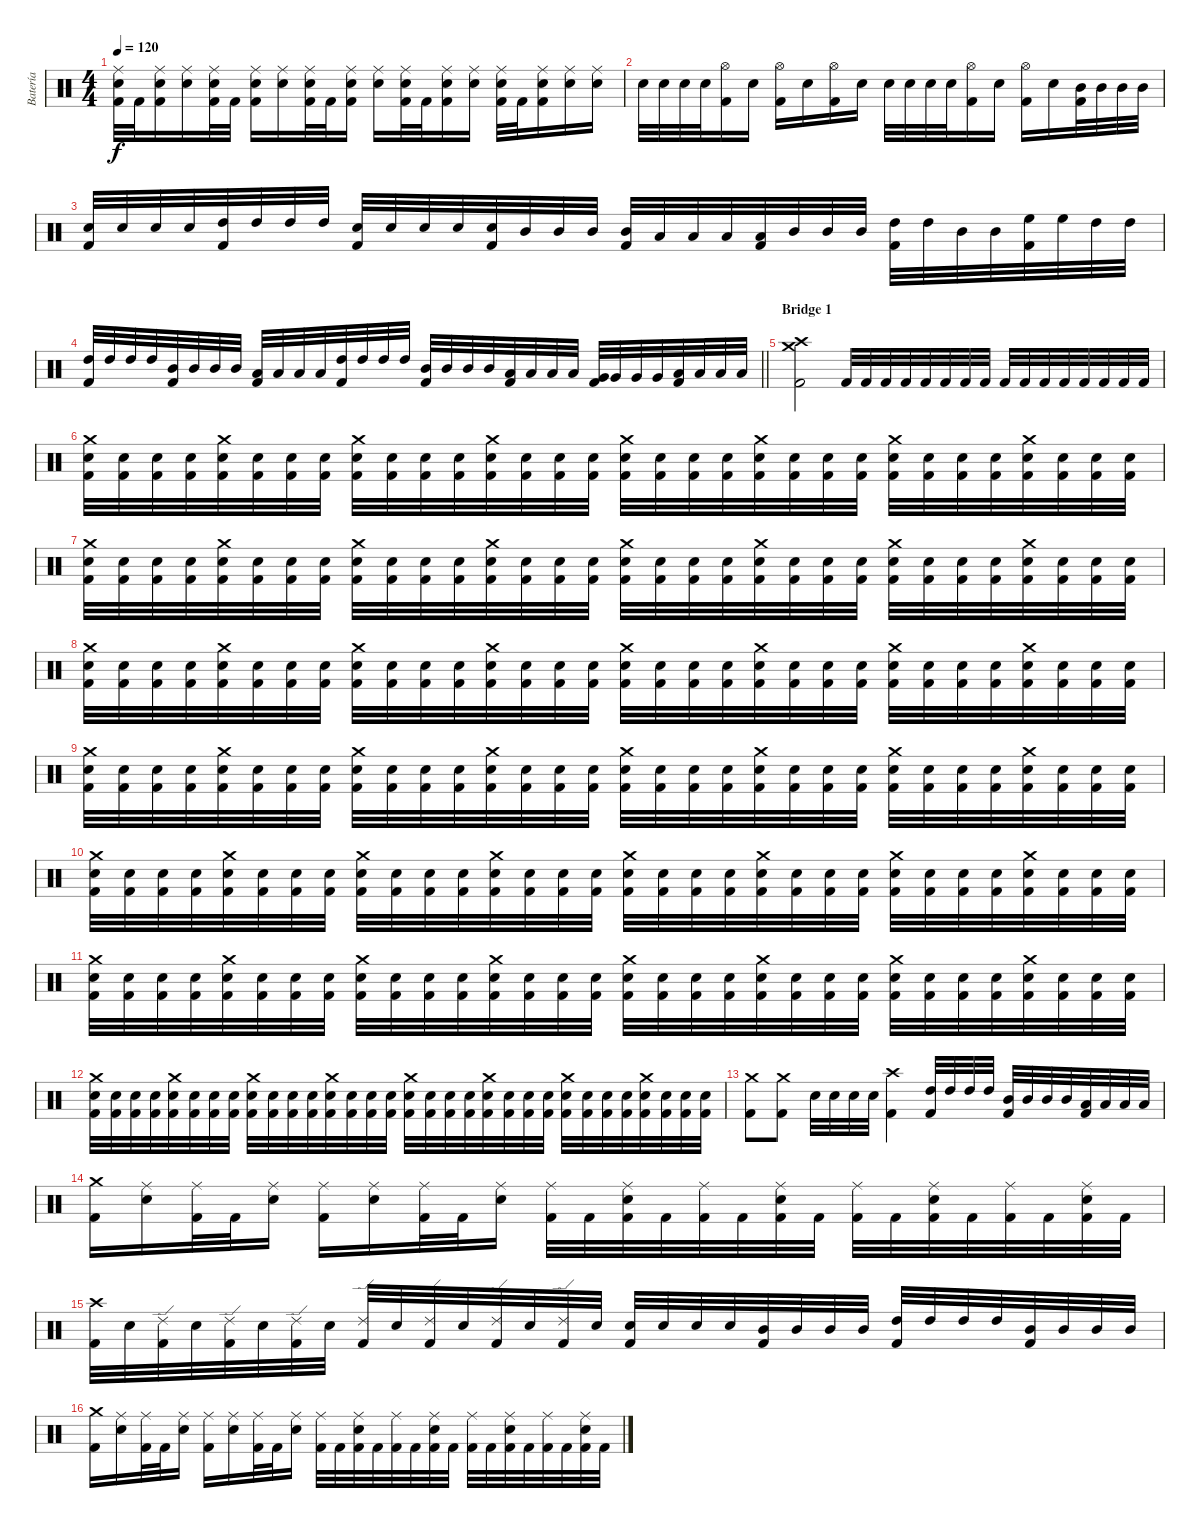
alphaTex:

\track ("Batería" "Batería") {instrument percussion}
\staff {score}
\articulation defaults
\ts (4 4)
\tempo 120
\clef neutral
\ks c
("Ride (middle)" "Electric Snare (hit)" "Kick (hit) 2").32{dy f} "Kick (hit) 2".32 ("Ride (middle)" "Electric Snare (hit)" "Kick (hit) 2").16 ("Ride (middle)" "Electric Snare (hit)").16 ("Ride (middle)" "Electric Snare (hit)" "Kick (hit) 2").32 "Kick (hit) 2".32 ("Ride (middle)" "Electric Snare (hit)" "Kick (hit) 2").16 ("Ride (middle)" "Electric Snare (hit)").16 ("Ride (middle)" "Electric Snare (hit)" "Kick (hit) 2").32 "Kick (hit) 2".32 ("Ride (middle)" "Electric Snare (hit)" "Kick (hit) 2").16 ("Ride (middle)" "Electric Snare (hit)").16 ("Ride (middle)" "Electric Snare (hit)" "Kick (hit) 2").32 "Kick (hit) 2".32 ("Ride (middle)" "Electric Snare (hit)" "Kick (hit) 2").16 ("Ride (middle)" "Electric Snare (hit)").16 ("Ride (middle)" "Electric Snare (hit)" "Kick (hit) 2").32 "Kick (hit) 2".32 ("Ride (middle)" "Electric Snare (hit)" "Kick (hit) 2").16 ("Ride (middle)" "Electric Snare (hit)").16 ("Ride (middle)" "Electric Snare (hit)").16 |
"Electric Snare (hit)".32 "Electric Snare (hit)".32 "Electric Snare (hit)".32 "Electric Snare (hit)".32 ("Hi-Hat (open)" "Kick (hit) 2").16 "Electric Snare (hit)".16 ("Hi-Hat (open)" "Kick (hit) 2").16 "Electric Snare (hit)".16 ("Hi-Hat (open)" "Kick (hit) 2").16 "Electric Snare (hit)".16 "Electric Snare (hit)".32 "Electric Snare (hit)".32 "Electric Snare (hit)".32 "Electric Snare (hit)".32 ("Hi-Hat (open)" "Kick (hit) 2").16 "Electric Snare (hit)".16 ("Hi-Hat (open)" "Kick (hit) 2").16 "Electric Snare (hit)".16 ("Mid Tom (hit)" "Kick (hit) 2").32 "Mid Tom (hit)".32 "Mid Tom (hit)".32 "Mid Tom (hit)".32 |
("Electric Snare (hit)" "Kick (hit) 2").32 "Electric Snare (hit)".32 "Electric Snare (hit)".32 "Electric Snare (hit)".32 ("High Tom (hit)" "Kick (hit) 2").32 "High Tom (hit)".32 "High Tom (hit)".32 "High Tom (hit)".32 ("Electric Snare (hit)" "Kick (hit) 2").32 "Electric Snare (hit)".32 "Electric Snare (hit)".32 "Electric Snare (hit)".32 ("Electric Snare (hit)" "Kick (hit) 2").32 "Mid Tom (hit)".32 "Mid Tom (hit)".32 "Mid Tom (hit)".32 ("Mid Tom (hit)" "Kick (hit) 2").32 "Low Tom (hit)".32 "Low Tom (hit)".32 "Low Tom (hit)".32 ("Low Tom (hit)" "Kick (hit) 2").32 "Mid Tom (hit)".32 "Mid Tom (hit)".32 "Mid Tom (hit)".32 ("High Tom (hit)" "Kick (hit) 2").32 "High Tom (hit)".32 "Mid Tom (hit)".32 "Mid Tom (hit)".32 ("High Floor Tom (hit)" "Kick (hit) 2").32 "High Floor Tom (hit)".32 "High Tom (hit)".32 "High Tom (hit)".32 |
\barLineRight lightlight
("High Tom (hit)" "Kick (hit) 2").32 "High Tom (hit)".32 "High Tom (hit)".32 "High Tom (hit)".32 ("Mid Tom (hit)" "Kick (hit) 2").32 "Mid Tom (hit)".32 "Mid Tom (hit)".32 "Mid Tom (hit)".32 ("Low Tom (hit)" "Kick (hit) 2").32 "Low Tom (hit)".32 "Low Tom (hit)".32 "Low Tom (hit)".32 ("High Tom (hit)" "Kick (hit) 2").32 "High Tom (hit)".32 "High Tom (hit)".32 "High Tom (hit)".32 ("Mid Tom (hit)" "Kick (hit) 2").32 "Mid Tom (hit)".32 "Mid Tom (hit)".32 "Mid Tom (hit)".32 ("Low Tom (hit)" "Kick (hit) 2").32 "Low Tom (hit)".32 "Low Tom (hit)".32 "Low Tom (hit)".32 ("Very Low Tom (hit)" "Kick (hit) 2").32 "Very Low Tom (hit)".32 "Very Low Tom (hit)".32 "Very Low Tom (hit)".32 ("Low Tom (hit)" "Kick (hit) 2").32 "Low Tom (hit)".32 "Low Tom (hit)".32 "Low Tom (hit)".32 |
\section ("" "Bridge 1")
("Crash high (hit)" "Crash medium (hit)" "Kick (hit) 2").2 "Kick (hit) 2".32 "Kick (hit) 2".32 "Kick (hit) 2".32 "Kick (hit) 2".32 "Kick (hit) 2".32 "Kick (hit) 2".32 "Kick (hit) 2".32 "Kick (hit) 2".32 "Kick (hit) 2".32 "Kick (hit) 2".32 "Kick (hit) 2".32 "Kick (hit) 2".32 "Kick (hit) 2".32 "Kick (hit) 2".32 "Kick (hit) 2".32 "Kick (hit) 2".32 |
("Crash medium (hit)" "Electric Snare (hit)" "Kick (hit) 2").32 ("Electric Snare (hit)" "Kick (hit) 2").32 ("Electric Snare (hit)" "Kick (hit) 2").32 ("Electric Snare (hit)" "Kick (hit) 2").32 ("Crash medium (hit)" "Electric Snare (hit)" "Kick (hit) 2").32 ("Electric Snare (hit)" "Kick (hit) 2").32 ("Electric Snare (hit)" "Kick (hit) 2").32 ("Electric Snare (hit)" "Kick (hit) 2").32 ("Crash medium (hit)" "Electric Snare (hit)" "Kick (hit) 2").32 ("Electric Snare (hit)" "Kick (hit) 2").32 ("Electric Snare (hit)" "Kick (hit) 2").32 ("Electric Snare (hit)" "Kick (hit) 2").32 ("Crash medium (hit)" "Electric Snare (hit)" "Kick (hit) 2").32 ("Electric Snare (hit)" "Kick (hit) 2").32 ("Electric Snare (hit)" "Kick (hit) 2").32 ("Electric Snare (hit)" "Kick (hit) 2").32 ("Crash medium (hit)" "Electric Snare (hit)" "Kick (hit) 2").32 ("Electric Snare (hit)" "Kick (hit) 2").32 ("Electric Snare (hit)" "Kick (hit) 2").32 ("Electric Snare (hit)" "Kick (hit) 2").32 ("Crash medium (hit)" "Electric Snare (hit)" "Kick (hit) 2").32 ("Electric Snare (hit)" "Kick (hit) 2").32 ("Electric Snare (hit)" "Kick (hit) 2").32 ("Electric Snare (hit)" "Kick (hit) 2").32 ("Crash medium (hit)" "Electric Snare (hit)" "Kick (hit) 2").32 ("Electric Snare (hit)" "Kick (hit) 2").32 ("Electric Snare (hit)" "Kick (hit) 2").32 ("Electric Snare (hit)" "Kick (hit) 2").32 ("Crash medium (hit)" "Electric Snare (hit)" "Kick (hit) 2").32 ("Electric Snare (hit)" "Kick (hit) 2").32 ("Electric Snare (hit)" "Kick (hit) 2").32 ("Electric Snare (hit)" "Kick (hit) 2").32 |
("Crash medium (hit)" "Electric Snare (hit)" "Kick (hit) 2").32 ("Electric Snare (hit)" "Kick (hit) 2").32 ("Electric Snare (hit)" "Kick (hit) 2").32 ("Electric Snare (hit)" "Kick (hit) 2").32 ("Crash medium (hit)" "Electric Snare (hit)" "Kick (hit) 2").32 ("Electric Snare (hit)" "Kick (hit) 2").32 ("Electric Snare (hit)" "Kick (hit) 2").32 ("Electric Snare (hit)" "Kick (hit) 2").32 ("Crash medium (hit)" "Electric Snare (hit)" "Kick (hit) 2").32 ("Electric Snare (hit)" "Kick (hit) 2").32 ("Electric Snare (hit)" "Kick (hit) 2").32 ("Electric Snare (hit)" "Kick (hit) 2").32 ("Crash medium (hit)" "Electric Snare (hit)" "Kick (hit) 2").32 ("Electric Snare (hit)" "Kick (hit) 2").32 ("Electric Snare (hit)" "Kick (hit) 2").32 ("Electric Snare (hit)" "Kick (hit) 2").32 ("Crash medium (hit)" "Electric Snare (hit)" "Kick (hit) 2").32 ("Electric Snare (hit)" "Kick (hit) 2").32 ("Electric Snare (hit)" "Kick (hit) 2").32 ("Electric Snare (hit)" "Kick (hit) 2").32 ("Crash medium (hit)" "Electric Snare (hit)" "Kick (hit) 2").32 ("Electric Snare (hit)" "Kick (hit) 2").32 ("Electric Snare (hit)" "Kick (hit) 2").32 ("Electric Snare (hit)" "Kick (hit) 2").32 ("Crash medium (hit)" "Electric Snare (hit)" "Kick (hit) 2").32 ("Electric Snare (hit)" "Kick (hit) 2").32 ("Electric Snare (hit)" "Kick (hit) 2").32 ("Electric Snare (hit)" "Kick (hit) 2").32 ("Crash medium (hit)" "Electric Snare (hit)" "Kick (hit) 2").32 ("Electric Snare (hit)" "Kick (hit) 2").32 ("Electric Snare (hit)" "Kick (hit) 2").32 ("Electric Snare (hit)" "Kick (hit) 2").32 |
("Crash medium (hit)" "Electric Snare (hit)" "Kick (hit) 2").32 ("Electric Snare (hit)" "Kick (hit) 2").32 ("Electric Snare (hit)" "Kick (hit) 2").32 ("Electric Snare (hit)" "Kick (hit) 2").32 ("Crash medium (hit)" "Electric Snare (hit)" "Kick (hit) 2").32 ("Electric Snare (hit)" "Kick (hit) 2").32 ("Electric Snare (hit)" "Kick (hit) 2").32 ("Electric Snare (hit)" "Kick (hit) 2").32 ("Crash medium (hit)" "Electric Snare (hit)" "Kick (hit) 2").32 ("Electric Snare (hit)" "Kick (hit) 2").32 ("Electric Snare (hit)" "Kick (hit) 2").32 ("Electric Snare (hit)" "Kick (hit) 2").32 ("Crash medium (hit)" "Electric Snare (hit)" "Kick (hit) 2").32 ("Electric Snare (hit)" "Kick (hit) 2").32 ("Electric Snare (hit)" "Kick (hit) 2").32 ("Electric Snare (hit)" "Kick (hit) 2").32 ("Crash medium (hit)" "Electric Snare (hit)" "Kick (hit) 2").32 ("Electric Snare (hit)" "Kick (hit) 2").32 ("Electric Snare (hit)" "Kick (hit) 2").32 ("Electric Snare (hit)" "Kick (hit) 2").32 ("Crash medium (hit)" "Electric Snare (hit)" "Kick (hit) 2").32 ("Electric Snare (hit)" "Kick (hit) 2").32 ("Electric Snare (hit)" "Kick (hit) 2").32 ("Electric Snare (hit)" "Kick (hit) 2").32 ("Crash medium (hit)" "Electric Snare (hit)" "Kick (hit) 2").32 ("Electric Snare (hit)" "Kick (hit) 2").32 ("Electric Snare (hit)" "Kick (hit) 2").32 ("Electric Snare (hit)" "Kick (hit) 2").32 ("Crash medium (hit)" "Electric Snare (hit)" "Kick (hit) 2").32 ("Electric Snare (hit)" "Kick (hit) 2").32 ("Electric Snare (hit)" "Kick (hit) 2").32 ("Electric Snare (hit)" "Kick (hit) 2").32 |
("Crash medium (hit)" "Electric Snare (hit)" "Kick (hit) 2").32 ("Electric Snare (hit)" "Kick (hit) 2").32 ("Electric Snare (hit)" "Kick (hit) 2").32 ("Electric Snare (hit)" "Kick (hit) 2").32 ("Crash medium (hit)" "Electric Snare (hit)" "Kick (hit) 2").32 ("Electric Snare (hit)" "Kick (hit) 2").32 ("Electric Snare (hit)" "Kick (hit) 2").32 ("Electric Snare (hit)" "Kick (hit) 2").32 ("Crash medium (hit)" "Electric Snare (hit)" "Kick (hit) 2").32 ("Electric Snare (hit)" "Kick (hit) 2").32 ("Electric Snare (hit)" "Kick (hit) 2").32 ("Electric Snare (hit)" "Kick (hit) 2").32 ("Crash medium (hit)" "Electric Snare (hit)" "Kick (hit) 2").32 ("Electric Snare (hit)" "Kick (hit) 2").32 ("Electric Snare (hit)" "Kick (hit) 2").32 ("Electric Snare (hit)" "Kick (hit) 2").32 ("Crash medium (hit)" "Electric Snare (hit)" "Kick (hit) 2").32 ("Electric Snare (hit)" "Kick (hit) 2").32 ("Electric Snare (hit)" "Kick (hit) 2").32 ("Electric Snare (hit)" "Kick (hit) 2").32 ("Crash medium (hit)" "Electric Snare (hit)" "Kick (hit) 2").32 ("Electric Snare (hit)" "Kick (hit) 2").32 ("Electric Snare (hit)" "Kick (hit) 2").32 ("Electric Snare (hit)" "Kick (hit) 2").32 ("Crash medium (hit)" "Electric Snare (hit)" "Kick (hit) 2").32 ("Electric Snare (hit)" "Kick (hit) 2").32 ("Electric Snare (hit)" "Kick (hit) 2").32 ("Electric Snare (hit)" "Kick (hit) 2").32 ("Crash medium (hit)" "Electric Snare (hit)" "Kick (hit) 2").32 ("Electric Snare (hit)" "Kick (hit) 2").32 ("Electric Snare (hit)" "Kick (hit) 2").32 ("Electric Snare (hit)" "Kick (hit) 2").32 |
("Crash medium (hit)" "Electric Snare (hit)" "Kick (hit) 2").32 ("Electric Snare (hit)" "Kick (hit) 2").32 ("Electric Snare (hit)" "Kick (hit) 2").32 ("Electric Snare (hit)" "Kick (hit) 2").32 ("Crash medium (hit)" "Electric Snare (hit)" "Kick (hit) 2").32 ("Electric Snare (hit)" "Kick (hit) 2").32 ("Electric Snare (hit)" "Kick (hit) 2").32 ("Electric Snare (hit)" "Kick (hit) 2").32 ("Crash medium (hit)" "Electric Snare (hit)" "Kick (hit) 2").32 ("Electric Snare (hit)" "Kick (hit) 2").32 ("Electric Snare (hit)" "Kick (hit) 2").32 ("Electric Snare (hit)" "Kick (hit) 2").32 ("Crash medium (hit)" "Electric Snare (hit)" "Kick (hit) 2").32 ("Electric Snare (hit)" "Kick (hit) 2").32 ("Electric Snare (hit)" "Kick (hit) 2").32 ("Electric Snare (hit)" "Kick (hit) 2").32 ("Crash medium (hit)" "Electric Snare (hit)" "Kick (hit) 2").32 ("Electric Snare (hit)" "Kick (hit) 2").32 ("Electric Snare (hit)" "Kick (hit) 2").32 ("Electric Snare (hit)" "Kick (hit) 2").32 ("Crash medium (hit)" "Electric Snare (hit)" "Kick (hit) 2").32 ("Electric Snare (hit)" "Kick (hit) 2").32 ("Electric Snare (hit)" "Kick (hit) 2").32 ("Electric Snare (hit)" "Kick (hit) 2").32 ("Crash medium (hit)" "Electric Snare (hit)" "Kick (hit) 2").32 ("Electric Snare (hit)" "Kick (hit) 2").32 ("Electric Snare (hit)" "Kick (hit) 2").32 ("Electric Snare (hit)" "Kick (hit) 2").32 ("Crash medium (hit)" "Electric Snare (hit)" "Kick (hit) 2").32 ("Electric Snare (hit)" "Kick (hit) 2").32 ("Electric Snare (hit)" "Kick (hit) 2").32 ("Electric Snare (hit)" "Kick (hit) 2").32 |
("Crash medium (hit)" "Electric Snare (hit)" "Kick (hit) 2").32 ("Electric Snare (hit)" "Kick (hit) 2").32 ("Electric Snare (hit)" "Kick (hit) 2").32 ("Electric Snare (hit)" "Kick (hit) 2").32 ("Crash medium (hit)" "Electric Snare (hit)" "Kick (hit) 2").32 ("Electric Snare (hit)" "Kick (hit) 2").32 ("Electric Snare (hit)" "Kick (hit) 2").32 ("Electric Snare (hit)" "Kick (hit) 2").32 ("Crash medium (hit)" "Electric Snare (hit)" "Kick (hit) 2").32 ("Electric Snare (hit)" "Kick (hit) 2").32 ("Electric Snare (hit)" "Kick (hit) 2").32 ("Electric Snare (hit)" "Kick (hit) 2").32 ("Crash medium (hit)" "Electric Snare (hit)" "Kick (hit) 2").32 ("Electric Snare (hit)" "Kick (hit) 2").32 ("Electric Snare (hit)" "Kick (hit) 2").32 ("Electric Snare (hit)" "Kick (hit) 2").32 ("Crash medium (hit)" "Electric Snare (hit)" "Kick (hit) 2").32 ("Electric Snare (hit)" "Kick (hit) 2").32 ("Electric Snare (hit)" "Kick (hit) 2").32 ("Electric Snare (hit)" "Kick (hit) 2").32 ("Crash medium (hit)" "Electric Snare (hit)" "Kick (hit) 2").32 ("Electric Snare (hit)" "Kick (hit) 2").32 ("Electric Snare (hit)" "Kick (hit) 2").32 ("Electric Snare (hit)" "Kick (hit) 2").32 ("Crash medium (hit)" "Electric Snare (hit)" "Kick (hit) 2").32 ("Electric Snare (hit)" "Kick (hit) 2").32 ("Electric Snare (hit)" "Kick (hit) 2").32 ("Electric Snare (hit)" "Kick (hit) 2").32 ("Crash medium (hit)" "Electric Snare (hit)" "Kick (hit) 2").32 ("Electric Snare (hit)" "Kick (hit) 2").32 ("Electric Snare (hit)" "Kick (hit) 2").32 ("Electric Snare (hit)" "Kick (hit) 2").32 |
("Crash medium (hit)" "Electric Snare (hit)" "Kick (hit) 2").32 ("Electric Snare (hit)" "Kick (hit) 2").32 ("Electric Snare (hit)" "Kick (hit) 2").32 ("Electric Snare (hit)" "Kick (hit) 2").32 ("Crash medium (hit)" "Electric Snare (hit)" "Kick (hit) 2").32 ("Electric Snare (hit)" "Kick (hit) 2").32 ("Electric Snare (hit)" "Kick (hit) 2").32 ("Electric Snare (hit)" "Kick (hit) 2").32 ("Crash medium (hit)" "Electric Snare (hit)" "Kick (hit) 2").32 ("Electric Snare (hit)" "Kick (hit) 2").32 ("Electric Snare (hit)" "Kick (hit) 2").32 ("Electric Snare (hit)" "Kick (hit) 2").32 ("Crash medium (hit)" "Electric Snare (hit)" "Kick (hit) 2").32 ("Electric Snare (hit)" "Kick (hit) 2").32 ("Electric Snare (hit)" "Kick (hit) 2").32 ("Electric Snare (hit)" "Kick (hit) 2").32 ("Crash medium (hit)" "Electric Snare (hit)" "Kick (hit) 2").32 ("Electric Snare (hit)" "Kick (hit) 2").32 ("Electric Snare (hit)" "Kick (hit) 2").32 ("Electric Snare (hit)" "Kick (hit) 2").32 ("Crash medium (hit)" "Electric Snare (hit)" "Kick (hit) 2").32 ("Electric Snare (hit)" "Kick (hit) 2").32 ("Electric Snare (hit)" "Kick (hit) 2").32 ("Electric Snare (hit)" "Kick (hit) 2").32 ("Crash medium (hit)" "Electric Snare (hit)" "Kick (hit) 2").32 ("Electric Snare (hit)" "Kick (hit) 2").32 ("Electric Snare (hit)" "Kick (hit) 2").32 ("Electric Snare (hit)" "Kick (hit) 2").32 ("Crash medium (hit)" "Electric Snare (hit)" "Kick (hit) 2").32 ("Electric Snare (hit)" "Kick (hit) 2").32 ("Electric Snare (hit)" "Kick (hit) 2").32 ("Electric Snare (hit)" "Kick (hit) 2").32 |
("Crash medium (hit)" "Kick (hit) 2").8 ("Crash medium (hit)" "Kick (hit) 2").8 "Electric Snare (hit)".32 "Electric Snare (hit)".32 "Electric Snare (hit)".32 "Electric Snare (hit)".32 ("Crash high (hit)" "Kick (hit) 2").4 ("High Tom (hit)" "Kick (hit) 2").32 "High Tom (hit)".32 "High Tom (hit)".32 "High Tom (hit)".32 ("Mid Tom (hit)" "Kick (hit) 2").32 "Mid Tom (hit)".32 "Mid Tom (hit)".32 "Mid Tom (hit)".32 ("Low Tom (hit)" "Kick (hit) 2").32 "Low Tom (hit)".32 "Low Tom (hit)".32 "Low Tom (hit)".32 |
("Crash medium (hit)" "Kick (hit) 2").16 ("Ride (middle)" "Electric Snare (hit)").16 ("Ride (middle)" "Kick (hit) 2").32 "Kick (hit) 2".32 ("Ride (middle)" "Electric Snare (hit)").16 ("Ride (middle)" "Kick (hit) 2").16 ("Ride (middle)" "Electric Snare (hit)").16 ("Ride (middle)" "Kick (hit) 2").32 "Kick (hit) 2".32 ("Ride (middle)" "Electric Snare (hit)").16 ("Ride (middle)" "Kick (hit) 2").32 "Kick (hit) 2".32 ("Ride (middle)" "Electric Snare (hit)" "Kick (hit) 2").32 "Kick (hit) 2".32 ("Ride (middle)" "Kick (hit) 2").32 "Kick (hit) 2".32 ("Ride (middle)" "Electric Snare (hit)" "Kick (hit) 2").32 "Kick (hit) 2".32 ("Ride (middle)" "Kick (hit) 2").32 "Kick (hit) 2".32 ("Ride (middle)" "Electric Snare (hit)" "Kick (hit) 2").32 "Kick (hit) 2".32 ("Ride (middle)" "Kick (hit) 2").32 "Kick (hit) 2".32 ("Ride (middle)" "Electric Snare (hit)" "Kick (hit) 2").32 "Kick (hit) 2".32 |
("Crash high (hit)" "Kick (hit) 2").32 "Electric Snare (hit)".32 ("Ride (edge) 2" "Kick (hit) 2").32 "Electric Snare (hit)".32 ("Ride (edge) 2" "Kick (hit) 2").32 "Electric Snare (hit)".32 ("Ride (edge) 2" "Kick (hit) 2").32 "Electric Snare (hit)".32 ("Ride (edge) 2" "Kick (hit) 2").32 "Electric Snare (hit)".32 ("Ride (edge) 2" "Kick (hit) 2").32 "Electric Snare (hit)".32 ("Ride (edge) 2" "Kick (hit) 2").32 "Electric Snare (hit)".32 ("Ride (edge) 2" "Kick (hit) 2").32 "Electric Snare (hit)".32 ("Electric Snare (hit)" "Kick (hit) 2").32 "Electric Snare (hit)".32 "Electric Snare (hit)".32 "Electric Snare (hit)".32 ("Mid Tom (hit)" "Kick (hit) 2").32 "Mid Tom (hit)".32 "Mid Tom (hit)".32 "Mid Tom (hit)".32 ("High Tom (hit)" "Kick (hit) 2").32 "High Tom (hit)".32 "High Tom (hit)".32 "High Tom (hit)".32 ("Mid Tom (hit)" "Kick (hit) 2").32 "Mid Tom (hit)".32 "Mid Tom (hit)".32 "Mid Tom (hit)".32 |
("Crash medium (hit)" "Kick (hit) 2").16 ("Ride (middle)" "Electric Snare (hit)").16 ("Ride (middle)" "Kick (hit) 2").32 "Kick (hit) 2".32 ("Ride (middle)" "Electric Snare (hit)").16 ("Ride (middle)" "Kick (hit) 2").16 ("Ride (middle)" "Electric Snare (hit)").16 ("Ride (middle)" "Kick (hit) 2").32 "Kick (hit) 2".32 ("Ride (middle)" "Electric Snare (hit)").16 ("Ride (middle)" "Kick (hit) 2").32 "Kick (hit) 2".32 ("Ride (middle)" "Electric Snare (hit)" "Kick (hit) 2").32 "Kick (hit) 2".32 ("Ride (middle)" "Kick (hit) 2").32 "Kick (hit) 2".32 ("Ride (middle)" "Electric Snare (hit)" "Kick (hit) 2").32 "Kick (hit) 2".32 ("Ride (middle)" "Kick (hit) 2").32 "Kick (hit) 2".32 ("Ride (middle)" "Electric Snare (hit)" "Kick (hit) 2").32 "Kick (hit) 2".32 ("Ride (middle)" "Kick (hit) 2").32 "Kick (hit) 2".32 ("Ride (middle)" "Electric Snare (hit)" "Kick (hit) 2").32 "Kick (hit) 2".32
